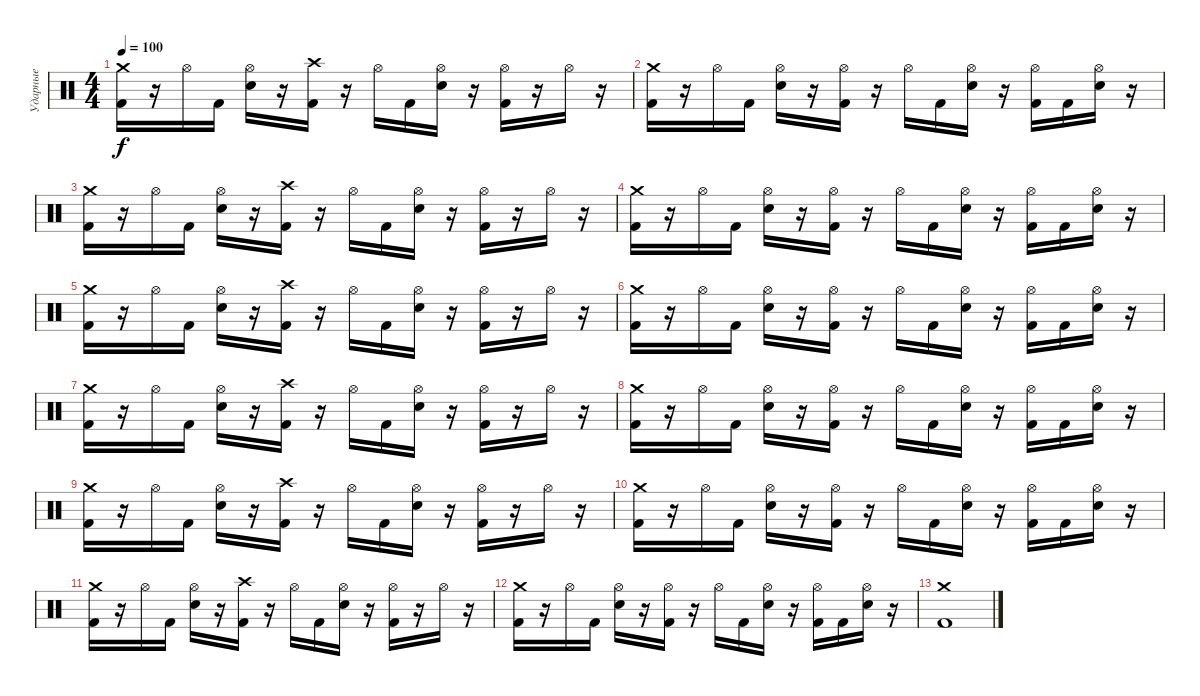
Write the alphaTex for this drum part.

\track ("Ударные" "Ударные") {instrument percussion}
\staff {score}
\articulation defaults
\ts (4 4)
\tempo 100
\clef neutral
\ks c
("Crash medium (hit)" "Kick (hit) 2").16{dy f} r.16 "Hi-Hat (open)".16 "Kick (hit) 2".16 ("Hi-Hat (open)" "Snare (hit) 2").16 r.16 ("Crash high (hit)" "Kick (hit) 2").16 r.16 "Hi-Hat (open)".16 "Kick (hit) 2".16 ("Hi-Hat (open)" "Snare (hit) 2").16 r.16 ("Hi-Hat (open)" "Kick (hit) 2").16 r.16 "Hi-Hat (open)".16 r.16 |
("Crash medium (hit)" "Kick (hit) 2").16 r.16 "Hi-Hat (open)".16 "Kick (hit) 2".16 ("Hi-Hat (open)" "Snare (hit) 2").16 r.16 ("Hi-Hat (open)" "Kick (hit) 2").16 r.16 "Hi-Hat (open)".16 "Kick (hit) 2".16 ("Hi-Hat (open)" "Snare (hit) 2").16 r.16 ("Hi-Hat (open)" "Kick (hit) 2").16 "Kick (hit) 2".16 ("Hi-Hat (open)" "Snare (hit) 2").16 r.16 |
("Crash medium (hit)" "Kick (hit) 2").16 r.16 "Hi-Hat (open)".16 "Kick (hit) 2".16 ("Hi-Hat (open)" "Snare (hit) 2").16 r.16 ("Crash high (hit)" "Kick (hit) 2").16 r.16 "Hi-Hat (open)".16 "Kick (hit) 2".16 ("Hi-Hat (open)" "Snare (hit) 2").16 r.16 ("Hi-Hat (open)" "Kick (hit) 2").16 r.16 "Hi-Hat (open)".16 r.16 |
("Crash medium (hit)" "Kick (hit) 2").16 r.16 "Hi-Hat (open)".16 "Kick (hit) 2".16 ("Hi-Hat (open)" "Snare (hit) 2").16 r.16 ("Hi-Hat (open)" "Kick (hit) 2").16 r.16 "Hi-Hat (open)".16 "Kick (hit) 2".16 ("Hi-Hat (open)" "Snare (hit) 2").16 r.16 ("Hi-Hat (open)" "Kick (hit) 2").16 "Kick (hit) 2".16 ("Hi-Hat (open)" "Snare (hit) 2").16 r.16 |
("Crash medium (hit)" "Kick (hit) 2").16 r.16 "Hi-Hat (open)".16 "Kick (hit) 2".16 ("Hi-Hat (open)" "Snare (hit) 2").16 r.16 ("Crash high (hit)" "Kick (hit) 2").16 r.16 "Hi-Hat (open)".16 "Kick (hit) 2".16 ("Hi-Hat (open)" "Snare (hit) 2").16 r.16 ("Hi-Hat (open)" "Kick (hit) 2").16 r.16 "Hi-Hat (open)".16 r.16 |
("Crash medium (hit)" "Kick (hit) 2").16 r.16 "Hi-Hat (open)".16 "Kick (hit) 2".16 ("Hi-Hat (open)" "Snare (hit) 2").16 r.16 ("Hi-Hat (open)" "Kick (hit) 2").16 r.16 "Hi-Hat (open)".16 "Kick (hit) 2".16 ("Hi-Hat (open)" "Snare (hit) 2").16 r.16 ("Hi-Hat (open)" "Kick (hit) 2").16 "Kick (hit) 2".16 ("Hi-Hat (open)" "Snare (hit) 2").16 r.16 |
("Crash medium (hit)" "Kick (hit) 2").16 r.16 "Hi-Hat (open)".16 "Kick (hit) 2".16 ("Hi-Hat (open)" "Snare (hit) 2").16 r.16 ("Crash high (hit)" "Kick (hit) 2").16 r.16 "Hi-Hat (open)".16 "Kick (hit) 2".16 ("Hi-Hat (open)" "Snare (hit) 2").16 r.16 ("Hi-Hat (open)" "Kick (hit) 2").16 r.16 "Hi-Hat (open)".16 r.16 |
("Crash medium (hit)" "Kick (hit) 2").16 r.16 "Hi-Hat (open)".16 "Kick (hit) 2".16 ("Hi-Hat (open)" "Snare (hit) 2").16 r.16 ("Hi-Hat (open)" "Kick (hit) 2").16 r.16 "Hi-Hat (open)".16 "Kick (hit) 2".16 ("Hi-Hat (open)" "Snare (hit) 2").16 r.16 ("Hi-Hat (open)" "Kick (hit) 2").16 "Kick (hit) 2".16 ("Hi-Hat (open)" "Snare (hit) 2").16 r.16 |
("Crash medium (hit)" "Kick (hit) 2").16 r.16 "Hi-Hat (open)".16 "Kick (hit) 2".16 ("Hi-Hat (open)" "Snare (hit) 2").16 r.16 ("Crash high (hit)" "Kick (hit) 2").16 r.16 "Hi-Hat (open)".16 "Kick (hit) 2".16 ("Hi-Hat (open)" "Snare (hit) 2").16 r.16 ("Hi-Hat (open)" "Kick (hit) 2").16 r.16 "Hi-Hat (open)".16 r.16 |
("Crash medium (hit)" "Kick (hit) 2").16 r.16 "Hi-Hat (open)".16 "Kick (hit) 2".16 ("Hi-Hat (open)" "Snare (hit) 2").16 r.16 ("Hi-Hat (open)" "Kick (hit) 2").16 r.16 "Hi-Hat (open)".16 "Kick (hit) 2".16 ("Hi-Hat (open)" "Snare (hit) 2").16 r.16 ("Hi-Hat (open)" "Kick (hit) 2").16 "Kick (hit) 2".16 ("Hi-Hat (open)" "Snare (hit) 2").16 r.16 |
("Crash medium (hit)" "Kick (hit) 2").16 r.16 "Hi-Hat (open)".16 "Kick (hit) 2".16 ("Hi-Hat (open)" "Snare (hit) 2").16 r.16 ("Crash high (hit)" "Kick (hit) 2").16 r.16 "Hi-Hat (open)".16 "Kick (hit) 2".16 ("Hi-Hat (open)" "Snare (hit) 2").16 r.16 ("Hi-Hat (open)" "Kick (hit) 2").16 r.16 "Hi-Hat (open)".16 r.16 |
("Crash medium (hit)" "Kick (hit) 2").16 r.16 "Hi-Hat (open)".16 "Kick (hit) 2".16 ("Hi-Hat (open)" "Snare (hit) 2").16 r.16 ("Hi-Hat (open)" "Kick (hit) 2").16 r.16 "Hi-Hat (open)".16 "Kick (hit) 2".16 ("Hi-Hat (open)" "Snare (hit) 2").16 r.16 ("Hi-Hat (open)" "Kick (hit) 2").16 "Kick (hit) 2".16 ("Hi-Hat (open)" "Snare (hit) 2").16 r.16 |
("Crash medium (hit)" "Kick (hit) 2").1
